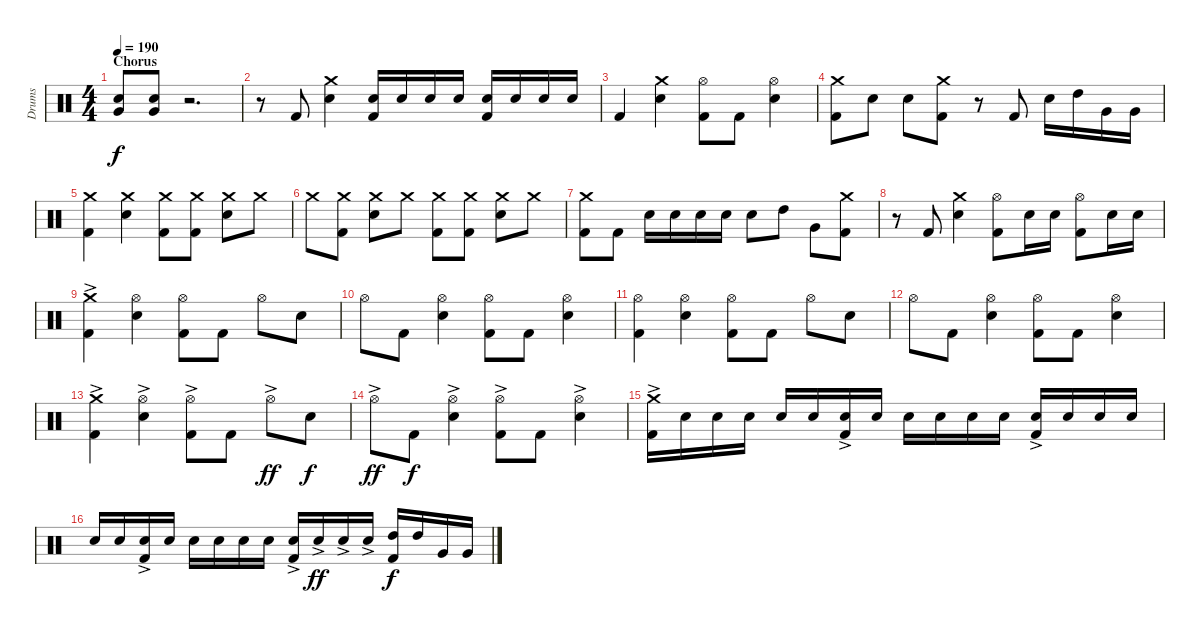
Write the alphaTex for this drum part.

\track ("Drums" "Drums") {instrument percussion}
\staff {score}
\articulation defaults
\ts (4 4)
\section ("" "Chorus")
\tempo 190
\clef neutral
\ks c
("Snare (hit) 2" "Very Low Tom (hit)").8{dy f} ("Snare (hit) 2" "Very Low Tom (hit)").8 r.2{d} |
r.8 "Kick (hit) 2".8 ("Crash medium (hit)" "Snare (hit) 2").4 ("Snare (hit) 2" "Kick (hit) 2").16 "Snare (hit) 2".16 "Snare (hit) 2".16 "Snare (hit) 2".16 ("Snare (hit) 2" "Kick (hit) 2").16 "Snare (hit) 2".16 "Snare (hit) 2".16 "Snare (hit) 2".16 |
"Kick (hit) 2".4 ("Crash medium (hit)" "Snare (hit) 2").4 ("Hi-Hat (open)" "Kick (hit) 2").8 "Kick (hit) 2".8 ("Hi-Hat (open)" "Snare (hit) 2").4 |
("Crash medium (hit)" "Kick (hit) 2").8 "Snare (hit) 2".8 "Snare (hit) 2".8 ("Crash medium (hit)" "Kick (hit) 2").8 r.8 "Kick (hit) 2".8 "Snare (hit) 2".16 "High Tom (hit)".16 "Very Low Tom (hit)".16 "Very Low Tom (hit)".16 |
("Crash medium (hit)" "Kick (hit) 2").4 ("Crash medium (hit)" "Snare (hit) 2").4 ("Crash medium (hit)" "Kick (hit) 2").8 ("Crash medium (hit)" "Kick (hit) 2").8 ("Crash medium (hit)" "Snare (hit) 2").8 "Crash medium (hit)".8 |
"Crash medium (hit)".8 ("Crash medium (hit)" "Kick (hit) 2").8 ("Crash medium (hit)" "Snare (hit) 2").8 "Crash medium (hit)".8 ("Crash medium (hit)" "Kick (hit) 2").8 ("Crash medium (hit)" "Kick (hit) 2").8 ("Crash medium (hit)" "Snare (hit) 2").8 "Crash medium (hit)".8 |
("Crash medium (hit)" "Kick (hit) 2").8 "Kick (hit) 2".8 "Snare (hit) 2".16 "Snare (hit) 2".16 "Snare (hit) 2".16 "Snare (hit) 2".16 "Snare (hit) 2".8 "High Tom (hit)".8 "Very Low Tom (hit)".8 ("Crash medium (hit)" "Kick (hit) 2").8 |
r.8 "Kick (hit) 2".8 ("Crash medium (hit)" "Snare (hit) 2").4 ("Hi-Hat (open)" "Kick (hit) 2").8 "Snare (hit) 2".16 "Snare (hit) 2".16 ("Hi-Hat (open)" "Kick (hit) 2").8 "Snare (hit) 2".16 "Snare (hit) 2".16 |
("Crash medium (hit)"{ac} "Kick (hit) 2").4 ("Hi-Hat (open)" "Snare (hit) 2").4 ("Hi-Hat (open)" "Kick (hit) 2").8 "Kick (hit) 2".8 "Hi-Hat (open)".8 "Snare (hit) 2".8 |
"Hi-Hat (open)".8 "Kick (hit) 2".8 ("Hi-Hat (open)" "Snare (hit) 2").4 ("Hi-Hat (open)" "Kick (hit) 2").8 "Kick (hit) 2".8 ("Hi-Hat (open)" "Snare (hit) 2").4 |
("Hi-Hat (open)" "Kick (hit) 2").4 ("Hi-Hat (open)" "Snare (hit) 2").4 ("Hi-Hat (open)" "Kick (hit) 2").8 "Kick (hit) 2".8 "Hi-Hat (open)".8 "Snare (hit) 2".8 |
"Hi-Hat (open)".8 "Kick (hit) 2".8 ("Hi-Hat (open)" "Snare (hit) 2").4 ("Hi-Hat (open)" "Kick (hit) 2").8 "Kick (hit) 2".8 ("Hi-Hat (open)" "Snare (hit) 2").4 |
("Crash medium (hit)"{ac} "Kick (hit) 2").4 ("Hi-Hat (open)"{ac} "Snare (hit) 2").4 ("Hi-Hat (open)"{ac} "Kick (hit) 2").8 "Kick (hit) 2".8 "Hi-Hat (open)"{ac}.8{dy ff} "Snare (hit) 2".8{dy f} |
"Hi-Hat (open)"{ac}.8{dy ff} "Kick (hit) 2".8{dy f} ("Hi-Hat (open)"{ac} "Snare (hit) 2").4 ("Hi-Hat (open)"{ac} "Kick (hit) 2").8 "Kick (hit) 2".8 ("Hi-Hat (open)"{ac} "Snare (hit) 2").4 |
("Crash medium (hit)"{ac} "Kick (hit) 2").16 "Snare (hit) 2".16 "Snare (hit) 2".16 "Snare (hit) 2".16 "Snare (hit) 2".16 "Snare (hit) 2".16 ("Snare (hit) 2"{ac} "Kick (hit) 2").16 "Snare (hit) 2".16 "Snare (hit) 2".16 "Snare (hit) 2".16 "Snare (hit) 2".16 "Snare (hit) 2".16 ("Snare (hit) 2"{ac} "Kick (hit) 2").16 "Snare (hit) 2".16 "Snare (hit) 2".16 "Snare (hit) 2".16 |
"Snare (hit) 2".16 "Snare (hit) 2".16 ("Snare (hit) 2"{ac} "Kick (hit) 2").16 "Snare (hit) 2".16 "Snare (hit) 2".16 "Snare (hit) 2".16 "Snare (hit) 2".16 "Snare (hit) 2".16 ("Snare (hit) 2"{ac} "Kick (hit) 2").16 "Snare (hit) 2"{ac}.16{dy ff} "Snare (hit) 2"{ac}.16 "Snare (hit) 2"{ac}.16 ("High Tom (hit)" "Kick (hit) 2").16{dy f} "High Tom (hit)".16 "Very Low Tom (hit)".16 "Very Low Tom (hit)".16
